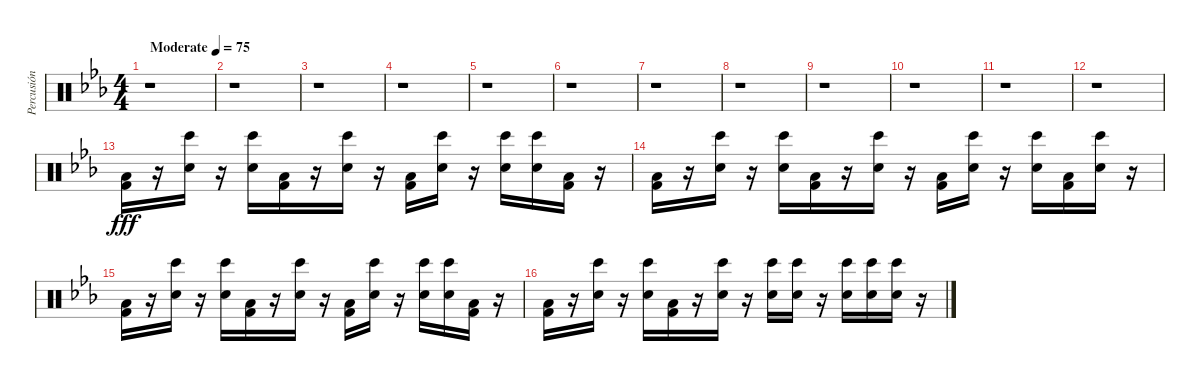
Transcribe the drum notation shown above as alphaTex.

\track ("Percusión" "Percusión") {instrument percussion}
\staff {score}
\articulation defaults
\ts (4 4)
\tempo (75 "Moderate")
\clef neutral
\ks eb
r.1{dy fff} |
r.1 |
r.1 |
r.1 |
r.1 |
r.1 |
r.1 |
r.1 |
r.1 |
r.1 |
r.1 |
r.1 |
("Low Floor Tom (hit)" "Kick (hit) 2").16 r.16 ("Snare (hit) 2" "Bongo High (hit)").16 r.16 ("Snare (hit) 2" "Bongo High (hit)").16 ("Low Floor Tom (hit)" "Kick (hit) 2").16 r.16 ("Snare (hit) 2" "Bongo High (hit)").16 r.16 ("Low Floor Tom (hit)" "Kick (hit) 2").16 ("Snare (hit) 2" "Bongo High (hit)").16 r.16 ("Snare (hit) 2" "Bongo High (hit)").16 ("Snare (hit) 2" "Bongo High (hit)").16 ("Low Floor Tom (hit)" "Kick (hit) 2").16 r.16 |
("Low Floor Tom (hit)" "Kick (hit) 2").16 r.16 ("Snare (hit) 2" "Bongo High (hit)").16 r.16 ("Snare (hit) 2" "Bongo High (hit)").16 ("Low Floor Tom (hit)" "Kick (hit) 2").16 r.16 ("Snare (hit) 2" "Bongo High (hit)").16 r.16 ("Low Floor Tom (hit)" "Kick (hit) 2").16 ("Snare (hit) 2" "Bongo High (hit)").16 r.16 ("Snare (hit) 2" "Bongo High (hit)").16 ("Low Floor Tom (hit)" "Kick (hit) 2").16 ("Snare (hit) 2" "Bongo High (hit)").16 r.16 |
("Low Floor Tom (hit)" "Kick (hit) 2").16 r.16 ("Snare (hit) 2" "Bongo High (hit)").16 r.16 ("Snare (hit) 2" "Bongo High (hit)").16 ("Low Floor Tom (hit)" "Kick (hit) 2").16 r.16 ("Snare (hit) 2" "Bongo High (hit)").16 r.16 ("Low Floor Tom (hit)" "Kick (hit) 2").16 ("Snare (hit) 2" "Bongo High (hit)").16 r.16 ("Snare (hit) 2" "Bongo High (hit)").16 ("Snare (hit) 2" "Bongo High (hit)").16 ("Low Floor Tom (hit)" "Kick (hit) 2").16 r.16 |
("Low Floor Tom (hit)" "Kick (hit) 2").16 r.16 ("Snare (hit) 2" "Bongo High (hit)").16 r.16 ("Snare (hit) 2" "Bongo High (hit)").16 ("Low Floor Tom (hit)" "Kick (hit) 2").16 r.16 ("Snare (hit) 2" "Bongo High (hit)").16 r.16 ("Snare (hit) 2" "Bongo High (hit)").16 ("Snare (hit) 2" "Bongo High (hit)").16 r.16 ("Snare (hit) 2" "Bongo High (hit)").16 ("Snare (hit) 2" "Bongo High (hit)").16 ("Snare (hit) 2" "Bongo High (hit)").16 r.16
